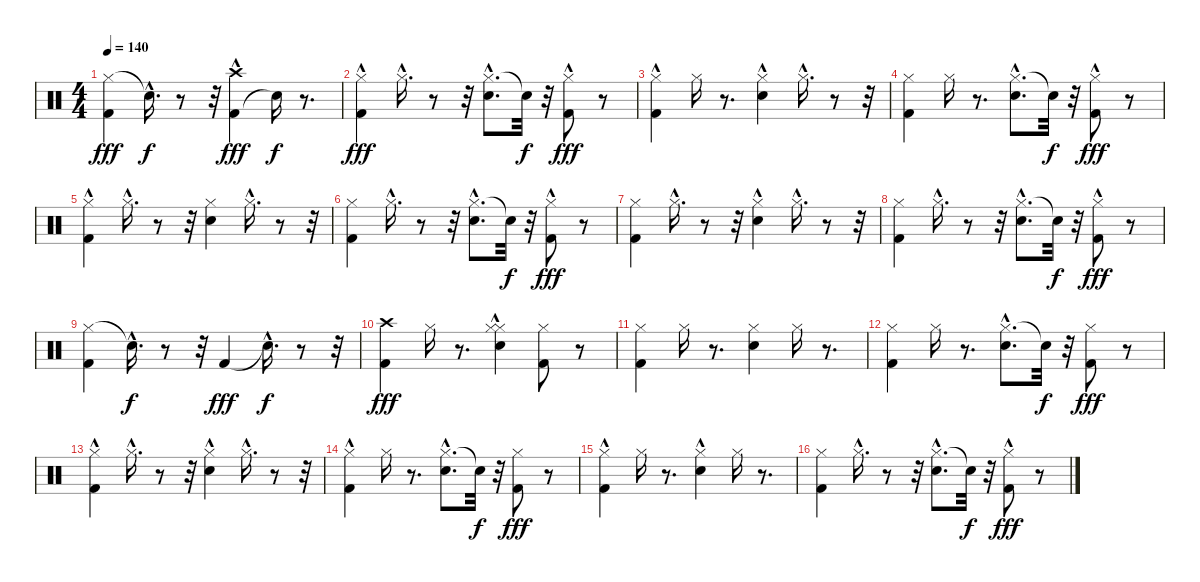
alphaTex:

\track "" {instrument percussion}
\staff {score}
\articulation defaults
\ts (4 4)
\tempo 140
\clef neutral
\ks c
("Hi-Hat (closed)" "Kick (hit) 2").4{dy fff} "Snare (hit)"{hac t}.16{d dy f} r.8 r.32 ("Kick (hit) 2" "Crash high (hit)"{hac}).4{dy fff} "Snare (hit)"{t}.16{dy f} r.8{d} |
("Kick (hit) 2"{hac} "Hi-Hat (closed)").4{dy fff} "Hi-Hat (closed)"{hac}.16{d} r.8 r.32 ("Hi-Hat (closed)"{hac} "Snare (hit) 2"{hac}).8{d} "Snare (hit)"{t}.32{dy f} r.32 ("Hi-Hat (closed)"{hac} "Kick (hit) 2").8{dy fff} r.8 |
("Hi-Hat (closed)" "Kick (hit) 2"{hac}).4 "Hi-Hat (closed)".16 r.8{d} ("Hi-Hat (closed)"{hac} "Snare (hit) 2"{hac}).4 "Hi-Hat (closed)"{hac}.16{d} r.8 r.32 |
("Hi-Hat (closed)" "Kick (hit) 2").4 "Hi-Hat (closed)".16 r.8{d} ("Hi-Hat (closed)"{hac} "Snare (hit) 2"{hac}).8{d} "Snare (hit)"{t}.32{dy f} r.32 ("Hi-Hat (closed)"{hac} "Kick (hit) 2").8{dy fff} r.8 |
("Kick (hit) 2" "Hi-Hat (closed)"{hac}).4 "Hi-Hat (closed)"{hac}.16{d} r.8 r.32 ("Hi-Hat (closed)" "Snare (hit) 2").4 "Hi-Hat (closed)"{hac}.16{d} r.8 r.32 |
("Hi-Hat (closed)" "Kick (hit) 2").4 "Hi-Hat (closed)"{hac}.16{d} r.8 r.32 ("Hi-Hat (closed)" "Snare (hit) 2"{hac}).8{d} "Snare (hit)"{t}.32{dy f} r.32 ("Hi-Hat (closed)"{hac} "Kick (hit) 2").8{dy fff} r.8 |
("Hi-Hat (closed)" "Kick (hit) 2").4 "Hi-Hat (closed)"{hac}.16{d} r.8 r.32 ("Snare (hit) 2"{hac} "Hi-Hat (closed)"{hac}).4 "Hi-Hat (closed)"{hac}.16{d} r.8 r.32 |
("Hi-Hat (closed)" "Kick (hit) 2").4 "Hi-Hat (closed)"{hac}.16{d} r.8 r.32 ("Hi-Hat (closed)" "Snare (hit) 2"{hac}).8{d} "Snare (hit)"{t}.32{dy f} r.32 ("Hi-Hat (closed)"{hac} "Kick (hit) 2").8{dy fff} r.8 |
("Hi-Hat (closed)" "Kick (hit) 2").4 "Snare (hit)"{hac t}.16{d dy f} r.8 r.32 "Kick (hit) 2".4{dy fff} "Snare (hit)"{hac t}.16{d dy f} r.8 r.32 |
("Crash high (hit)" "Kick (hit) 2").4{dy fff} "Hi-Hat (closed)".16 r.8{d} ("Hi-Hat (closed)"{hac} "Hi-Hat (closed)"{hac} "Snare (hit) 2").4 ("Kick (hit) 2" "Hi-Hat (closed)").8 r.8 |
("Kick (hit) 2" "Hi-Hat (closed)").4 "Hi-Hat (closed)".16 r.8{d} ("Hi-Hat (closed)" "Snare (hit) 2").4 "Hi-Hat (closed)".16 r.8{d} |
("Hi-Hat (closed)" "Kick (hit) 2").4 "Hi-Hat (closed)".16 r.8{d} ("Hi-Hat (closed)" "Snare (hit) 2"{hac}).8{d} "Snare (hit)"{t}.32{dy f} r.32 ("Hi-Hat (closed)" "Kick (hit) 2").8{dy fff} r.8 |
("Hi-Hat (closed)"{hac} "Kick (hit) 2").4 "Hi-Hat (closed)"{hac}.16{d} r.8 r.32 ("Snare (hit) 2" "Hi-Hat (closed)"{hac}).4 "Hi-Hat (closed)"{hac}.16{d} r.8 r.32 |
("Hi-Hat (closed)"{hac} "Kick (hit) 2").4 "Hi-Hat (closed)".16 r.8{d} ("Hi-Hat (closed)" "Snare (hit) 2"{hac}).8{d} "Snare (hit)"{t}.32{dy f} r.32 ("Kick (hit) 2" "Hi-Hat (closed)").8{dy fff} r.8 |
("Hi-Hat (closed)"{hac} "Kick (hit) 2").4 "Hi-Hat (closed)".16 r.8{d} ("Snare (hit) 2"{hac} "Hi-Hat (closed)").4 "Hi-Hat (closed)".16 r.8{d} |
("Hi-Hat (closed)" "Kick (hit) 2").4 "Hi-Hat (closed)"{hac}.16{d} r.8 r.32 ("Hi-Hat (closed)" "Snare (hit) 2"{hac}).8{d} "Snare (hit)"{t}.32{dy f} r.32 ("Hi-Hat (closed)"{hac} "Kick (hit) 2").8{dy fff} r.8
